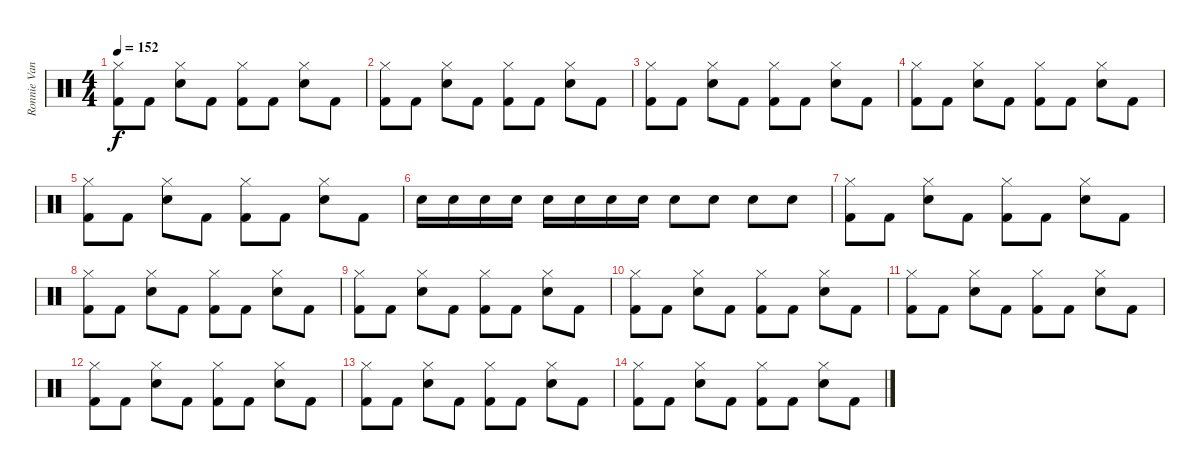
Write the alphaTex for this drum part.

\track ("Ronnie Vannucci Jr." "Ronnie Van") {instrument percussion}
\staff
\articulation defaults
\ts (4 4)
\tempo 152
\clef neutral
\ks c
("Hi-Hat (closed)" "Kick (hit) 2").8{dy f} "Kick (hit) 2".8 ("Hi-Hat (closed)" "Electric Snare (hit)").8 "Kick (hit) 2".8 ("Hi-Hat (closed)" "Kick (hit) 2").8 "Kick (hit) 2".8 ("Hi-Hat (closed)" "Electric Snare (hit)").8 "Kick (hit) 2".8 |
("Hi-Hat (closed)" "Kick (hit) 2").8 "Kick (hit) 2".8 ("Hi-Hat (closed)" "Electric Snare (hit)").8 "Kick (hit) 2".8 ("Hi-Hat (closed)" "Kick (hit) 2").8 "Kick (hit) 2".8 ("Hi-Hat (closed)" "Electric Snare (hit)").8 "Kick (hit) 2".8 |
("Hi-Hat (closed)" "Kick (hit) 2").8 "Kick (hit) 2".8 ("Hi-Hat (closed)" "Electric Snare (hit)").8 "Kick (hit) 2".8 ("Hi-Hat (closed)" "Kick (hit) 2").8 "Kick (hit) 2".8 ("Hi-Hat (closed)" "Electric Snare (hit)").8 "Kick (hit) 2".8 |
("Hi-Hat (closed)" "Kick (hit) 2").8 "Kick (hit) 2".8 ("Hi-Hat (closed)" "Electric Snare (hit)").8 "Kick (hit) 2".8 ("Hi-Hat (closed)" "Kick (hit) 2").8 "Kick (hit) 2".8 ("Hi-Hat (closed)" "Electric Snare (hit)").8 "Kick (hit) 2".8 |
("Hi-Hat (closed)" "Kick (hit) 2").8 "Kick (hit) 2".8 ("Hi-Hat (closed)" "Electric Snare (hit)").8 "Kick (hit) 2".8 ("Hi-Hat (closed)" "Kick (hit) 2").8 "Kick (hit) 2".8 ("Hi-Hat (closed)" "Electric Snare (hit)").8 "Kick (hit) 2".8 |
"Electric Snare (hit)".16 "Electric Snare (hit)".16 "Electric Snare (hit)".16 "Electric Snare (hit)".16 "Electric Snare (hit)".16 "Electric Snare (hit)".16 "Electric Snare (hit)".16 "Electric Snare (hit)".16 "Electric Snare (hit)".8 "Electric Snare (hit)".8 "Electric Snare (hit)".8 "Electric Snare (hit)".8 |
("Hi-Hat (closed)" "Kick (hit) 2").8 "Kick (hit) 2".8 ("Hi-Hat (closed)" "Electric Snare (hit)").8 "Kick (hit) 2".8 ("Hi-Hat (closed)" "Kick (hit) 2").8 "Kick (hit) 2".8 ("Hi-Hat (closed)" "Electric Snare (hit)").8 "Kick (hit) 2".8 |
("Hi-Hat (closed)" "Kick (hit) 2").8 "Kick (hit) 2".8 ("Hi-Hat (closed)" "Electric Snare (hit)").8 "Kick (hit) 2".8 ("Hi-Hat (closed)" "Kick (hit) 2").8 "Kick (hit) 2".8 ("Hi-Hat (closed)" "Electric Snare (hit)").8 "Kick (hit) 2".8 |
("Hi-Hat (closed)" "Kick (hit) 2").8{volume 3} "Kick (hit) 2".8 ("Hi-Hat (closed)" "Electric Snare (hit)").8 "Kick (hit) 2".8 ("Hi-Hat (closed)" "Kick (hit) 2").8 "Kick (hit) 2".8 ("Hi-Hat (closed)" "Electric Snare (hit)").8 "Kick (hit) 2".8 |
("Hi-Hat (closed)" "Kick (hit) 2").8 "Kick (hit) 2".8 ("Hi-Hat (closed)" "Electric Snare (hit)").8 "Kick (hit) 2".8 ("Hi-Hat (closed)" "Kick (hit) 2").8 "Kick (hit) 2".8 ("Hi-Hat (closed)" "Electric Snare (hit)").8 "Kick (hit) 2".8 |
("Hi-Hat (closed)" "Kick (hit) 2").8 "Kick (hit) 2".8 ("Hi-Hat (closed)" "Electric Snare (hit)").8 "Kick (hit) 2".8 ("Hi-Hat (closed)" "Kick (hit) 2").8 "Kick (hit) 2".8 ("Hi-Hat (closed)" "Electric Snare (hit)").8 "Kick (hit) 2".8 |
("Hi-Hat (closed)" "Kick (hit) 2").8 "Kick (hit) 2".8 ("Hi-Hat (closed)" "Electric Snare (hit)").8 "Kick (hit) 2".8 ("Hi-Hat (closed)" "Kick (hit) 2").8 "Kick (hit) 2".8 ("Hi-Hat (closed)" "Electric Snare (hit)").8 "Kick (hit) 2".8 |
("Hi-Hat (closed)" "Kick (hit) 2").8 "Kick (hit) 2".8 ("Hi-Hat (closed)" "Electric Snare (hit)").8 "Kick (hit) 2".8 ("Hi-Hat (closed)" "Kick (hit) 2").8 "Kick (hit) 2".8 ("Hi-Hat (closed)" "Electric Snare (hit)").8 "Kick (hit) 2".8 |
("Hi-Hat (closed)" "Kick (hit) 2").8{volume 2} "Kick (hit) 2".8 ("Hi-Hat (closed)" "Electric Snare (hit)").8 "Kick (hit) 2".8 ("Hi-Hat (closed)" "Kick (hit) 2").8{volume 1} "Kick (hit) 2".8 ("Hi-Hat (closed)" "Electric Snare (hit)").8 "Kick (hit) 2".8
